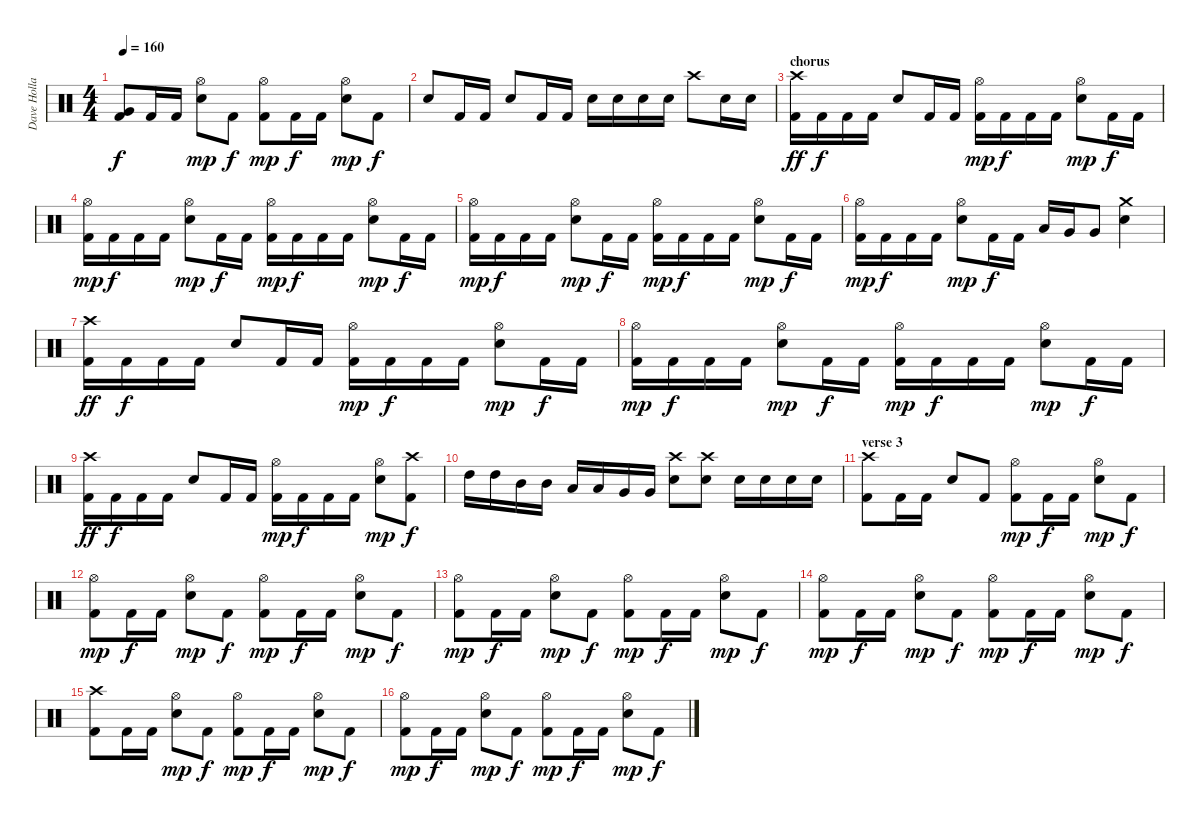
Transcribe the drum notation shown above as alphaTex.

\track ("Dave Holland" "Dave Holla") {instrument percussion}
\staff {score}
\articulation defaults
\ts (4 4)
\tempo 160
\clef neutral
\ks c
("Kick (hit) 2" "Very Low Tom (hit)").8{dy f} "Kick (hit) 2".16 "Kick (hit) 2".16 ("Hi-Hat (open)" "Snare (hit) 2").8{dy mp} "Kick (hit) 2".8{dy f} ("Kick (hit) 2" "Hi-Hat (open)").8{dy mp} "Kick (hit) 2".16{dy f} "Kick (hit) 2".16 ("Hi-Hat (open)" "Snare (hit) 2").8{dy mp} "Kick (hit) 2".8{dy f} |
"Snare (hit) 2".8 "Kick (hit) 2".16 "Kick (hit) 2".16 "Snare (hit) 2".8 "Kick (hit) 2".16 "Kick (hit) 2".16 "Snare (hit) 2".16 "Snare (hit) 2".16 "Snare (hit) 2".16 "Snare (hit) 2".16 "Crash high (hit)".8 "Snare (hit) 2".16 "Snare (hit) 2".16 |
\section ("" "chorus")
("Kick (hit) 2" "Crash high (hit)").16{dy ff} "Kick (hit) 2".16{dy f} "Kick (hit) 2".16 "Kick (hit) 2".16 "Snare (hit) 2".8 "Kick (hit) 2".16 "Kick (hit) 2".16 ("Kick (hit) 2" "Hi-Hat (open)").16{dy mp} "Kick (hit) 2".16{dy f} "Kick (hit) 2".16 "Kick (hit) 2".16 ("Hi-Hat (open)" "Snare (hit) 2").8{dy mp} "Kick (hit) 2".16{dy f} "Kick (hit) 2".16 |
("Kick (hit) 2" "Hi-Hat (open)").16{dy mp} "Kick (hit) 2".16{dy f} "Kick (hit) 2".16 "Kick (hit) 2".16 ("Hi-Hat (open)" "Snare (hit) 2").8{dy mp} "Kick (hit) 2".16{dy f} "Kick (hit) 2".16 ("Kick (hit) 2" "Hi-Hat (open)").16{dy mp} "Kick (hit) 2".16{dy f} "Kick (hit) 2".16 "Kick (hit) 2".16 ("Hi-Hat (open)" "Snare (hit) 2").8{dy mp} "Kick (hit) 2".16{dy f} "Kick (hit) 2".16 |
("Kick (hit) 2" "Hi-Hat (open)").16{dy mp} "Kick (hit) 2".16{dy f} "Kick (hit) 2".16 "Kick (hit) 2".16 ("Hi-Hat (open)" "Snare (hit) 2").8{dy mp} "Kick (hit) 2".16{dy f} "Kick (hit) 2".16 ("Kick (hit) 2" "Hi-Hat (open)").16{dy mp} "Kick (hit) 2".16{dy f} "Kick (hit) 2".16 "Kick (hit) 2".16 ("Hi-Hat (open)" "Snare (hit) 2").8{dy mp} "Kick (hit) 2".16{dy f} "Kick (hit) 2".16 |
("Kick (hit) 2" "Hi-Hat (open)").16{dy mp} "Kick (hit) 2".16{dy f} "Kick (hit) 2".16 "Kick (hit) 2".16 ("Hi-Hat (open)" "Snare (hit) 2").8{dy mp} "Kick (hit) 2".16{dy f} "Kick (hit) 2".16 "Low Tom (hit)".16 "Very Low Tom (hit)".16 "Very Low Tom (hit)".8 ("Crash medium (hit)" "Snare (hit) 2").4 |
("Kick (hit) 2" "Crash high (hit)").16{dy ff} "Kick (hit) 2".16{dy f} "Kick (hit) 2".16 "Kick (hit) 2".16 "Snare (hit) 2".8 "Kick (hit) 2".16 "Kick (hit) 2".16 ("Kick (hit) 2" "Hi-Hat (open)").16{dy mp} "Kick (hit) 2".16{dy f} "Kick (hit) 2".16 "Kick (hit) 2".16 ("Hi-Hat (open)" "Snare (hit) 2").8{dy mp} "Kick (hit) 2".16{dy f} "Kick (hit) 2".16 |
("Kick (hit) 2" "Hi-Hat (open)").16{dy mp} "Kick (hit) 2".16{dy f} "Kick (hit) 2".16 "Kick (hit) 2".16 ("Hi-Hat (open)" "Snare (hit) 2").8{dy mp} "Kick (hit) 2".16{dy f} "Kick (hit) 2".16 ("Kick (hit) 2" "Hi-Hat (open)").16{dy mp} "Kick (hit) 2".16{dy f} "Kick (hit) 2".16 "Kick (hit) 2".16 ("Hi-Hat (open)" "Snare (hit) 2").8{dy mp} "Kick (hit) 2".16{dy f} "Kick (hit) 2".16 |
("Kick (hit) 2" "Crash high (hit)").16{dy ff} "Kick (hit) 2".16{dy f} "Kick (hit) 2".16 "Kick (hit) 2".16 "Snare (hit) 2".8 "Kick (hit) 2".16 "Kick (hit) 2".16 ("Kick (hit) 2" "Hi-Hat (open)").16{dy mp} "Kick (hit) 2".16{dy f} "Kick (hit) 2".16 "Kick (hit) 2".16 ("Hi-Hat (open)" "Snare (hit) 2").8{dy mp} ("Kick (hit) 2" "Crash high (hit)").8{dy f} |
"High Tom (hit)".16 "High Tom (hit)".16 "Mid Tom (hit)".16 "Mid Tom (hit)".16 "Low Tom (hit)".16 "Low Tom (hit)".16 "Very Low Tom (hit)".16 "Very Low Tom (hit)".16 ("Crash high (hit)" "Snare (hit) 2").8 ("Crash high (hit)" "Snare (hit) 2").8 "Snare (hit) 2".16 "Snare (hit) 2".16 "Snare (hit) 2".16 "Snare (hit) 2".16 |
\section ("" "verse 3")
("Kick (hit) 2" "Crash high (hit)").8 "Kick (hit) 2".16 "Kick (hit) 2".16 "Snare (hit) 2".8 "Kick (hit) 2".8 ("Kick (hit) 2" "Hi-Hat (open)").8{dy mp} "Kick (hit) 2".16{dy f} "Kick (hit) 2".16 ("Hi-Hat (open)" "Snare (hit) 2").8{dy mp} "Kick (hit) 2".8{dy f} |
("Kick (hit) 2" "Hi-Hat (open)").8{dy mp} "Kick (hit) 2".16{dy f} "Kick (hit) 2".16 ("Hi-Hat (open)" "Snare (hit) 2").8{dy mp} "Kick (hit) 2".8{dy f} ("Kick (hit) 2" "Hi-Hat (open)").8{dy mp} "Kick (hit) 2".16{dy f} "Kick (hit) 2".16 ("Hi-Hat (open)" "Snare (hit) 2").8{dy mp} "Kick (hit) 2".8{dy f} |
("Kick (hit) 2" "Hi-Hat (open)").8{dy mp} "Kick (hit) 2".16{dy f} "Kick (hit) 2".16 ("Hi-Hat (open)" "Snare (hit) 2").8{dy mp} "Kick (hit) 2".8{dy f} ("Kick (hit) 2" "Hi-Hat (open)").8{dy mp} "Kick (hit) 2".16{dy f} "Kick (hit) 2".16 ("Hi-Hat (open)" "Snare (hit) 2").8{dy mp} "Kick (hit) 2".8{dy f} |
("Kick (hit) 2" "Hi-Hat (open)").8{dy mp} "Kick (hit) 2".16{dy f} "Kick (hit) 2".16 ("Hi-Hat (open)" "Snare (hit) 2").8{dy mp} "Kick (hit) 2".8{dy f} ("Kick (hit) 2" "Hi-Hat (open)").8{dy mp} "Kick (hit) 2".16{dy f} "Kick (hit) 2".16 ("Hi-Hat (open)" "Snare (hit) 2").8{dy mp} "Kick (hit) 2".8{dy f} |
("Kick (hit) 2" "Crash high (hit)").8 "Kick (hit) 2".16 "Kick (hit) 2".16 ("Hi-Hat (open)" "Snare (hit) 2").8{dy mp} "Kick (hit) 2".8{dy f} ("Kick (hit) 2" "Hi-Hat (open)").8{dy mp} "Kick (hit) 2".16{dy f} "Kick (hit) 2".16 ("Hi-Hat (open)" "Snare (hit) 2").8{dy mp} "Kick (hit) 2".8{dy f} |
("Kick (hit) 2" "Hi-Hat (open)").8{dy mp} "Kick (hit) 2".16{dy f} "Kick (hit) 2".16 ("Hi-Hat (open)" "Snare (hit) 2").8{dy mp} "Kick (hit) 2".8{dy f} ("Kick (hit) 2" "Hi-Hat (open)").8{dy mp} "Kick (hit) 2".16{dy f} "Kick (hit) 2".16 ("Hi-Hat (open)" "Snare (hit) 2").8{dy mp} "Kick (hit) 2".8{dy f}
